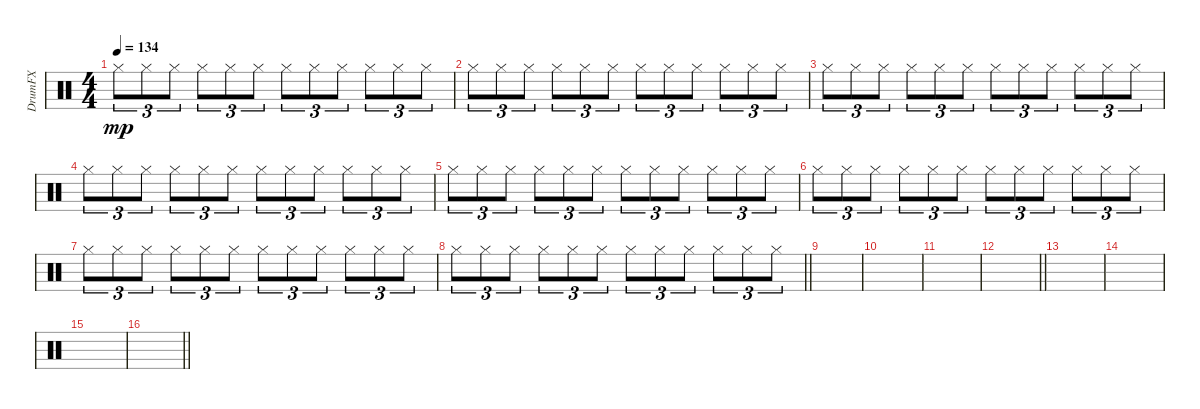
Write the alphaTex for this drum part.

\track ("DrumFX" "DrumFX") {instrument percussion}
\staff {score}
\articulation defaults
\ts (4 4)
\section ("" "")
\tempo 134
\clef neutral
\ks c "Hi-Hat (closed)".8{tu (3 2) dy mp} "Hi-Hat (closed)".8{tu (3 2)} "Hi-Hat (closed)".8{tu (3 2)} "Hi-Hat (closed)".8{tu (3 2)} "Hi-Hat (closed)".8{tu (3 2)} "Hi-Hat (closed)".8{tu (3 2)} "Hi-Hat (closed)".8{tu (3 2)} "Hi-Hat (closed)".8{tu (3 2)} "Hi-Hat (closed)".8{tu (3 2)} "Hi-Hat (closed)".8{tu (3 2)} "Hi-Hat (closed)".8{tu (3 2)} "Hi-Hat (closed)".8{tu (3 2)}
|
"Hi-Hat (closed)".8{tu (3 2)} "Hi-Hat (closed)".8{tu (3 2)} "Hi-Hat (closed)".8{tu (3 2)} "Hi-Hat (closed)".8{tu (3 2)} "Hi-Hat (closed)".8{tu (3 2)} "Hi-Hat (closed)".8{tu (3 2)} "Hi-Hat (closed)".8{tu (3 2)} "Hi-Hat (closed)".8{tu (3 2)} "Hi-Hat (closed)".8{tu (3 2)} "Hi-Hat (closed)".8{tu (3 2)} "Hi-Hat (closed)".8{tu (3 2)} "Hi-Hat (closed)".8{tu (3 2)} |
"Hi-Hat (closed)".8{tu (3 2)} "Hi-Hat (closed)".8{tu (3 2)} "Hi-Hat (closed)".8{tu (3 2)} "Hi-Hat (closed)".8{tu (3 2)} "Hi-Hat (closed)".8{tu (3 2)} "Hi-Hat (closed)".8{tu (3 2)} "Hi-Hat (closed)".8{tu (3 2)} "Hi-Hat (closed)".8{tu (3 2)} "Hi-Hat (closed)".8{tu (3 2)} "Hi-Hat (closed)".8{tu (3 2)} "Hi-Hat (closed)".8{tu (3 2)} "Hi-Hat (closed)".8{tu (3 2)} |
"Hi-Hat (closed)".8{tu (3 2)} "Hi-Hat (closed)".8{tu (3 2)} "Hi-Hat (closed)".8{tu (3 2)} "Hi-Hat (closed)".8{tu (3 2)} "Hi-Hat (closed)".8{tu (3 2)} "Hi-Hat (closed)".8{tu (3 2)} "Hi-Hat (closed)".8{tu (3 2)} "Hi-Hat (closed)".8{tu (3 2)} "Hi-Hat (closed)".8{tu (3 2)} "Hi-Hat (closed)".8{tu (3 2)} "Hi-Hat (closed)".8{tu (3 2)} "Hi-Hat (closed)".8{tu (3 2)} |
"Hi-Hat (closed)".8{tu (3 2)} "Hi-Hat (closed)".8{tu (3 2)} "Hi-Hat (closed)".8{tu (3 2)} "Hi-Hat (closed)".8{tu (3 2)} "Hi-Hat (closed)".8{tu (3 2)} "Hi-Hat (closed)".8{tu (3 2)} "Hi-Hat (closed)".8{tu (3 2)} "Hi-Hat (closed)".8{tu (3 2)} "Hi-Hat (closed)".8{tu (3 2)} "Hi-Hat (closed)".8{tu (3 2)} "Hi-Hat (closed)".8{tu (3 2)} "Hi-Hat (closed)".8{tu (3 2)} |
"Hi-Hat (closed)".8{tu (3 2)} "Hi-Hat (closed)".8{tu (3 2)} "Hi-Hat (closed)".8{tu (3 2)} "Hi-Hat (closed)".8{tu (3 2)} "Hi-Hat (closed)".8{tu (3 2)} "Hi-Hat (closed)".8{tu (3 2)} "Hi-Hat (closed)".8{tu (3 2)} "Hi-Hat (closed)".8{tu (3 2)} "Hi-Hat (closed)".8{tu (3 2)} "Hi-Hat (closed)".8{tu (3 2)} "Hi-Hat (closed)".8{tu (3 2)} "Hi-Hat (closed)".8{tu (3 2)} |
"Hi-Hat (closed)".8{tu (3 2)} "Hi-Hat (closed)".8{tu (3 2)} "Hi-Hat (closed)".8{tu (3 2)} "Hi-Hat (closed)".8{tu (3 2)} "Hi-Hat (closed)".8{tu (3 2)} "Hi-Hat (closed)".8{tu (3 2)} "Hi-Hat (closed)".8{tu (3 2)} "Hi-Hat (closed)".8{tu (3 2)} "Hi-Hat (closed)".8{tu (3 2)} "Hi-Hat (closed)".8{tu (3 2)} "Hi-Hat (closed)".8{tu (3 2)} "Hi-Hat (closed)".8{tu (3 2)} |
\barLineRight lightlight "Hi-Hat (closed)".8{tu (3 2)} "Hi-Hat (closed)".8{tu (3 2)} "Hi-Hat (closed)".8{tu (3 2)} "Hi-Hat (closed)".8{tu (3 2)} "Hi-Hat (closed)".8{tu (3 2)} "Hi-Hat (closed)".8{tu (3 2)} "Hi-Hat (closed)".8{tu (3 2)} "Hi-Hat (closed)".8{tu (3 2)} "Hi-Hat (closed)".8{tu (3 2)} "Hi-Hat (closed)".8{tu (3 2)} "Hi-Hat (closed)".8{tu (3 2)} "Hi-Hat (closed)".8{tu (3 2)}
|
\section ("" "")
|
|
|
\barLineRight lightlight
|
\section ("" "")
|
|
|
\barLineRight lightlight
